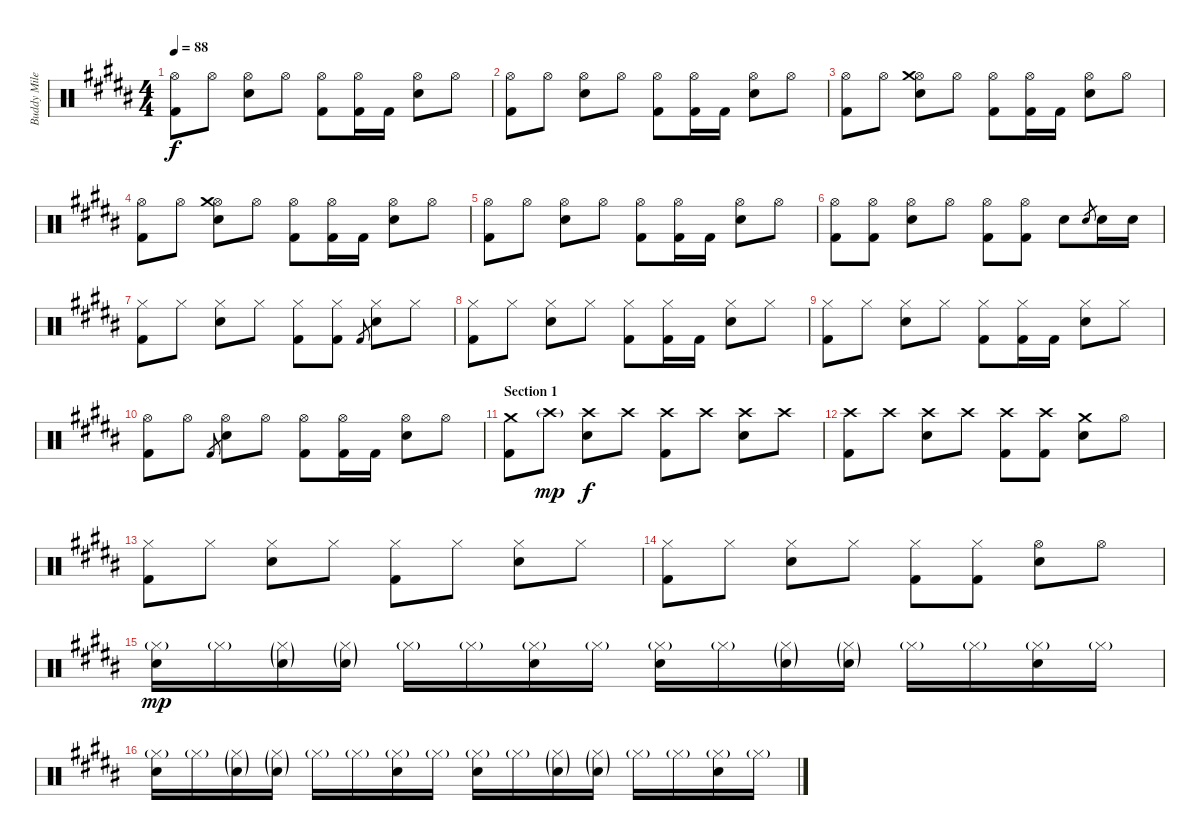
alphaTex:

\track ("Buddy Miles" "Buddy Mile") {instrument percussion}
\staff {score}
\articulation defaults
\ts (4 4)
\tempo 88
\clef neutral
\ks b
("Hi-Hat (open)" "Kick (hit) 2").8{dy f} "Hi-Hat (open)".8 ("Hi-Hat (open)" "Electric Snare (hit)").8 "Hi-Hat (open)".8 ("Hi-Hat (open)" "Kick (hit) 2").8 ("Hi-Hat (open)" "Kick (hit) 2").16 "Kick (hit) 2".16 ("Hi-Hat (open)" "Electric Snare (hit)").8 "Hi-Hat (open)".8 |
("Hi-Hat (open)" "Kick (hit) 2").8 "Hi-Hat (open)".8 ("Hi-Hat (open)" "Electric Snare (hit)").8 "Hi-Hat (open)".8 ("Hi-Hat (open)" "Kick (hit) 2").8 ("Hi-Hat (open)" "Kick (hit) 2").16 "Kick (hit) 2".16 ("Hi-Hat (open)" "Electric Snare (hit)").8 "Hi-Hat (open)".8 |
("Hi-Hat (open)" "Kick (hit) 2").8 "Hi-Hat (open)".8 ("Hi-Hat (open)" "Electric Snare (hit)" "Crash medium (hit)").8 "Hi-Hat (open)".8 ("Hi-Hat (open)" "Kick (hit) 2").8 ("Hi-Hat (open)" "Kick (hit) 2").16 "Kick (hit) 2".16 ("Hi-Hat (open)" "Electric Snare (hit)").8 "Hi-Hat (open)".8 |
("Hi-Hat (open)" "Kick (hit) 2").8 "Hi-Hat (open)".8 ("Hi-Hat (open)" "Electric Snare (hit)" "Crash medium (hit)").8 "Hi-Hat (open)".8 ("Hi-Hat (open)" "Kick (hit) 2").8 ("Hi-Hat (open)" "Kick (hit) 2").16 "Kick (hit) 2".16 ("Hi-Hat (open)" "Electric Snare (hit)").8 "Hi-Hat (open)".8 |
("Hi-Hat (open)" "Kick (hit) 2").8 "Hi-Hat (open)".8 ("Hi-Hat (open)" "Electric Snare (hit)").8 "Hi-Hat (open)".8 ("Hi-Hat (open)" "Kick (hit) 2").8 ("Hi-Hat (open)" "Kick (hit) 2").16 "Kick (hit) 2".16 ("Hi-Hat (open)" "Electric Snare (hit)").8 "Hi-Hat (open)".8 |
("Hi-Hat (open)" "Kick (hit) 2").8 ("Hi-Hat (open)" "Kick (hit) 2").8 ("Hi-Hat (open)" "Electric Snare (hit)").8 "Hi-Hat (open)".8 ("Hi-Hat (open)" "Kick (hit) 2").8 ("Hi-Hat (open)" "Kick (hit) 2").8 "Electric Snare (hit)".8 "Electric Snare (hit)".8{gr} "Electric Snare (hit)".16 "Electric Snare (hit)".16 |
("Hi-Hat (closed)" "Kick (hit) 2").8 "Hi-Hat (closed)".8 ("Hi-Hat (closed)" "Electric Snare (hit)").8 "Hi-Hat (closed)".8 ("Hi-Hat (closed)" "Kick (hit) 2").8 ("Hi-Hat (closed)" "Kick (hit) 2").8 "Kick (hit) 2".8{gr} ("Hi-Hat (closed)" "Electric Snare (hit)").8 "Hi-Hat (closed)".8 |
("Hi-Hat (closed)" "Kick (hit) 2").8 "Hi-Hat (closed)".8 ("Hi-Hat (closed)" "Electric Snare (hit)").8 "Hi-Hat (closed)".8 ("Hi-Hat (closed)" "Kick (hit) 2").8 ("Hi-Hat (closed)" "Kick (hit) 2").16 "Kick (hit) 2".16 ("Hi-Hat (closed)" "Electric Snare (hit)").8 "Hi-Hat (closed)".8 |
("Hi-Hat (closed)" "Kick (hit) 2").8 "Hi-Hat (closed)".8 ("Hi-Hat (closed)" "Electric Snare (hit)").8 "Hi-Hat (closed)".8 ("Hi-Hat (closed)" "Kick (hit) 2").8 ("Hi-Hat (closed)" "Kick (hit) 2").16 "Kick (hit) 2".16 ("Hi-Hat (closed)" "Electric Snare (hit)").8 "Hi-Hat (closed)".8 |
("Hi-Hat (open)" "Kick (hit) 2").8 "Hi-Hat (open)".8 "Kick (hit) 2".8{gr} ("Hi-Hat (open)" "Electric Snare (hit)").8 "Hi-Hat (open)".8 ("Hi-Hat (open)" "Kick (hit) 2").8 ("Hi-Hat (open)" "Kick (hit) 2").16 "Kick (hit) 2".16 ("Hi-Hat (open)" "Electric Snare (hit)").8 "Hi-Hat (open)".8 |
\section ("" "Section 1")
("Kick (hit) 2" "Crash medium (hit)").8 "Crash high (hit)"{g}.8{dy mp} ("Crash high (hit)" "Electric Snare (hit)").8{dy f} "Crash high (hit)".8 ("Crash high (hit)" "Kick (hit) 2").8 "Crash high (hit)".8 ("Crash high (hit)" "Electric Snare (hit)").8 "Crash high (hit)".8 |
("Crash high (hit)" "Kick (hit) 2").8 "Crash high (hit)".8 ("Crash high (hit)" "Electric Snare (hit)").8 "Crash high (hit)".8 ("Crash high (hit)" "Kick (hit) 2").8 ("Crash high (hit)" "Kick (hit) 2").8 ("Electric Snare (hit)" "Crash medium (hit)").8 "Hi-Hat (open)".8 |
("Hi-Hat (closed)" "Kick (hit) 2").8 "Hi-Hat (closed)".8 ("Hi-Hat (closed)" "Electric Snare (hit)").8 "Hi-Hat (closed)".8 ("Hi-Hat (closed)" "Kick (hit) 2").8 "Hi-Hat (closed)".8 ("Hi-Hat (closed)" "Electric Snare (hit)").8 "Hi-Hat (closed)".8 |
("Hi-Hat (closed)" "Kick (hit) 2").8 "Hi-Hat (closed)".8 ("Hi-Hat (closed)" "Electric Snare (hit)").8 "Hi-Hat (closed)".8 ("Hi-Hat (closed)" "Kick (hit) 2").8 ("Hi-Hat (closed)" "Kick (hit) 2").8 ("Hi-Hat (open)" "Electric Snare (hit)").8 "Hi-Hat (open)".8 |
("Hi-Hat (closed)"{g} "Electric Snare (hit)").16{dy mp} "Hi-Hat (closed)"{g}.16 ("Hi-Hat (closed)"{g} "Electric Snare (hit)"{g}).16 ("Hi-Hat (closed)"{g} "Electric Snare (hit)"{g}).16 "Hi-Hat (closed)"{g}.16 "Hi-Hat (closed)"{g}.16 ("Hi-Hat (closed)"{g} "Electric Snare (hit)").16 "Hi-Hat (closed)"{g}.16 ("Hi-Hat (closed)"{g} "Electric Snare (hit)").16 "Hi-Hat (closed)"{g}.16 ("Hi-Hat (closed)"{g} "Electric Snare (hit)"{g}).16 ("Hi-Hat (closed)"{g} "Electric Snare (hit)"{g}).16 "Hi-Hat (closed)"{g}.16 "Hi-Hat (closed)"{g}.16 ("Hi-Hat (closed)"{g} "Electric Snare (hit)").16 "Hi-Hat (closed)"{g}.16 |
("Hi-Hat (closed)"{g} "Electric Snare (hit)").16 "Hi-Hat (closed)"{g}.16 ("Hi-Hat (closed)"{g} "Electric Snare (hit)"{g}).16 ("Hi-Hat (closed)"{g} "Electric Snare (hit)"{g}).16 "Hi-Hat (closed)"{g}.16 "Hi-Hat (closed)"{g}.16 ("Hi-Hat (closed)"{g} "Electric Snare (hit)").16 "Hi-Hat (closed)"{g}.16 ("Hi-Hat (closed)"{g} "Electric Snare (hit)").16 "Hi-Hat (closed)"{g}.16 ("Hi-Hat (closed)"{g} "Electric Snare (hit)"{g}).16 ("Hi-Hat (closed)"{g} "Electric Snare (hit)"{g}).16 "Hi-Hat (closed)"{g}.16 "Hi-Hat (closed)"{g}.16 ("Hi-Hat (closed)"{g} "Electric Snare (hit)").16 "Hi-Hat (closed)"{g}.16
